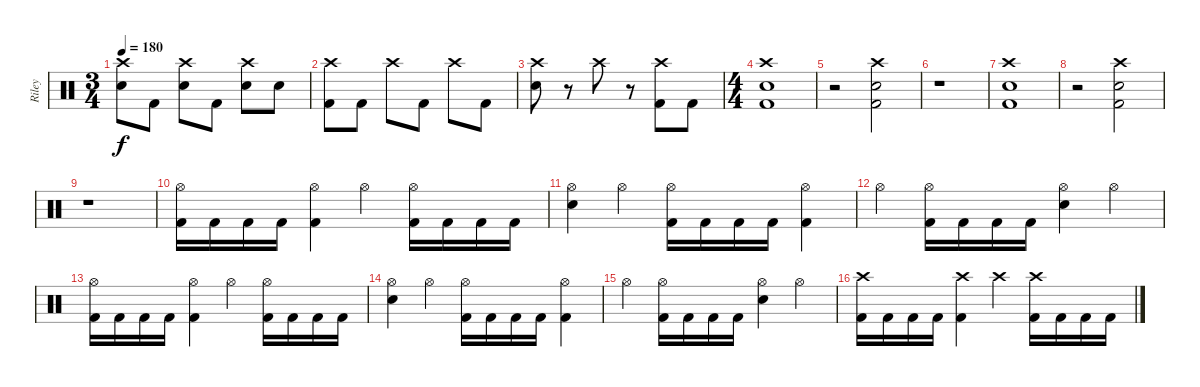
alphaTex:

\track ("Riley" "Riley") {instrument percussion}
\staff {score}
\articulation defaults
\ts (3 4)
\tempo 180
\clef neutral
\ks c
("Crash high (hit)" "Electric Snare (hit)").8{dy f} "Kick (hit) 2".8 ("Crash high (hit)" "Electric Snare (hit)").8 "Kick (hit) 2".8 ("Crash high (hit)" "Electric Snare (hit)").8 "Electric Snare (hit)".8 |
("Crash high (hit)" "Kick (hit) 2").8 "Kick (hit) 2".8 "Crash high (hit)".8 "Kick (hit) 2".8 "Crash high (hit)".8 "Kick (hit) 2".8 |
("Crash high (hit)" "Electric Snare (hit)").8 r.8 "Crash high (hit)".8 r.8 ("Crash high (hit)" "Kick (hit) 2").8 "Kick (hit) 2".8 |
\ts (4 4)
("Crash high (hit)" "Electric Snare (hit)" "Kick (hit) 2").1 |
r.2 ("Crash high (hit)" "Electric Snare (hit)" "Kick (hit) 2").2 |
r.1 |
("Crash high (hit)" "Electric Snare (hit)" "Kick (hit) 2").1 |
r.2 ("Crash high (hit)" "Electric Snare (hit)" "Kick (hit) 2").2 |
r.1 |
("Hi-Hat (open)" "Kick (hit) 2").16 "Kick (hit) 2".16 "Kick (hit) 2".16 "Kick (hit) 2".16 ("Hi-Hat (open)" "Kick (hit) 2").4 "Hi-Hat (open)".4 ("Hi-Hat (open)" "Kick (hit) 2").16 "Kick (hit) 2".16 "Kick (hit) 2".16 "Kick (hit) 2".16 |
("Hi-Hat (open)" "Electric Snare (hit)").4 "Hi-Hat (open)".4 ("Hi-Hat (open)" "Kick (hit) 2").16 "Kick (hit) 2".16 "Kick (hit) 2".16 "Kick (hit) 2".16 ("Hi-Hat (open)" "Kick (hit) 2").4 |
"Hi-Hat (open)".4 ("Hi-Hat (open)" "Kick (hit) 2").16 "Kick (hit) 2".16 "Kick (hit) 2".16 "Kick (hit) 2".16 ("Hi-Hat (open)" "Electric Snare (hit)").4 "Hi-Hat (open)".4 |
("Hi-Hat (open)" "Kick (hit) 2").16 "Kick (hit) 2".16 "Kick (hit) 2".16 "Kick (hit) 2".16 ("Hi-Hat (open)" "Kick (hit) 2").4 "Hi-Hat (open)".4 ("Hi-Hat (open)" "Kick (hit) 2").16 "Kick (hit) 2".16 "Kick (hit) 2".16 "Kick (hit) 2".16 |
("Hi-Hat (open)" "Electric Snare (hit)").4 "Hi-Hat (open)".4 ("Hi-Hat (open)" "Kick (hit) 2").16 "Kick (hit) 2".16 "Kick (hit) 2".16 "Kick (hit) 2".16 ("Hi-Hat (open)" "Kick (hit) 2").4 |
"Hi-Hat (open)".4 ("Hi-Hat (open)" "Kick (hit) 2").16 "Kick (hit) 2".16 "Kick (hit) 2".16 "Kick (hit) 2".16 ("Hi-Hat (open)" "Electric Snare (hit)").4 "Hi-Hat (open)".4 |
("Crash high (hit)" "Kick (hit) 2").16 "Kick (hit) 2".16 "Kick (hit) 2".16 "Kick (hit) 2".16 ("Crash high (hit)" "Kick (hit) 2").4 "Crash high (hit)".4 ("Crash high (hit)" "Kick (hit) 2").16 "Kick (hit) 2".16 "Kick (hit) 2".16 "Kick (hit) 2".16
